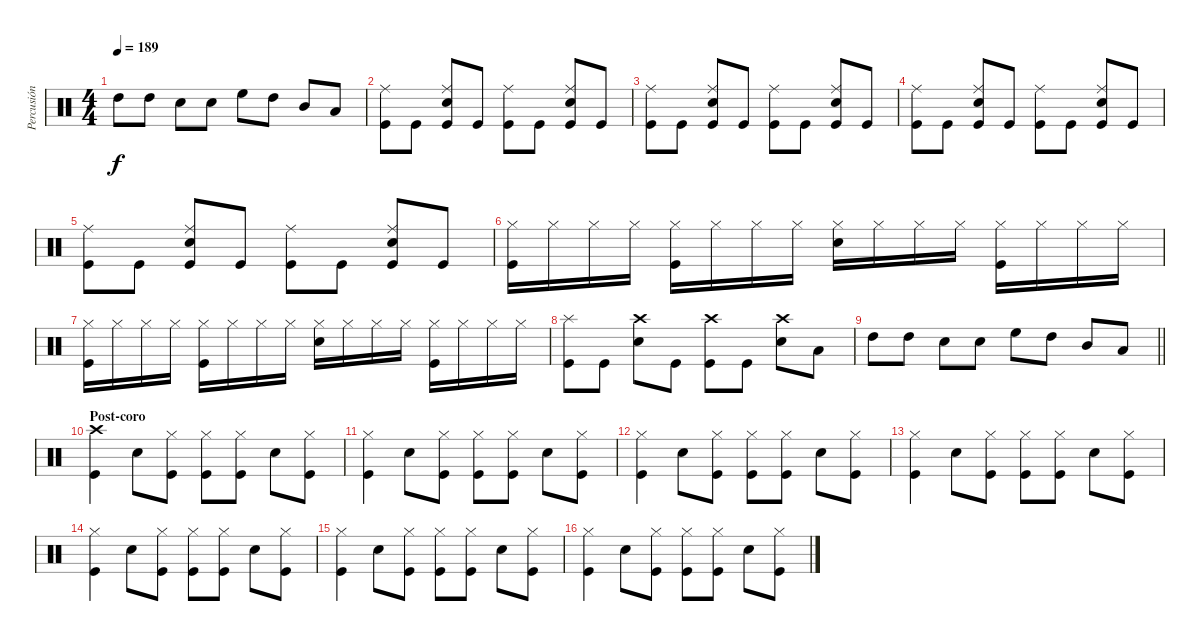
\track ("Percusión" "Percusión") {instrument percussion}
\staff {score}
\articulation defaults
\ts (4 4)
\tempo 189
\clef neutral
\ks c "High Tom (hit)".8{dy f} "High Tom (hit)".8 "Electric Snare (hit)".8 "Electric Snare (hit)".8 "High Floor Tom (hit)".8 "High Tom (hit)".8 "Mid Tom (hit)".8 "Low Tom (hit)".8
|
("Ride (middle)" "Kick (hit)").8 "Kick (hit)".8 ("Ride (middle)" "Electric Snare (hit)" "Kick (hit)").8 "Kick (hit)".8 ("Ride (middle)" "Kick (hit)").8 "Kick (hit)".8 ("Ride (middle)" "Electric Snare (hit)" "Kick (hit)").8 "Kick (hit)".8 |
("Ride (middle)" "Kick (hit)").8 "Kick (hit)".8 ("Ride (middle)" "Electric Snare (hit)" "Kick (hit)").8 "Kick (hit)".8 ("Ride (middle)" "Kick (hit)").8 "Kick (hit)".8 ("Ride (middle)" "Electric Snare (hit)" "Kick (hit)").8 "Kick (hit)".8 |
("Ride (middle)" "Kick (hit)").8 "Kick (hit)".8 ("Ride (middle)" "Electric Snare (hit)" "Kick (hit)").8 "Kick (hit)".8 ("Ride (middle)" "Kick (hit)").8 "Kick (hit)".8 ("Ride (middle)" "Electric Snare (hit)" "Kick (hit)").8 "Kick (hit)".8 |
("Ride (middle)" "Kick (hit)").8 "Kick (hit)".8 ("Ride (middle)" "Electric Snare (hit)" "Kick (hit)").8 "Kick (hit)".8 ("Ride (middle)" "Kick (hit)").8 "Kick (hit)".8 ("Ride (middle)" "Electric Snare (hit)" "Kick (hit)").8 "Kick (hit)".8 |
("Hi-Hat (closed)" "Kick (hit)").16 "Hi-Hat (closed)".16 "Hi-Hat (closed)".16 "Hi-Hat (closed)".16 ("Hi-Hat (closed)" "Kick (hit)").16 "Hi-Hat (closed)".16 "Hi-Hat (closed)".16 "Hi-Hat (closed)".16 ("Hi-Hat (closed)" "Electric Snare (hit)").16 "Hi-Hat (closed)".16 "Hi-Hat (closed)".16 "Hi-Hat (closed)".16 ("Hi-Hat (closed)" "Kick (hit)").16 "Hi-Hat (closed)".16 "Hi-Hat (closed)".16 "Hi-Hat (closed)".16 |
("Hi-Hat (closed)" "Kick (hit)").16 "Hi-Hat (closed)".16 "Hi-Hat (closed)".16 "Hi-Hat (closed)".16 ("Hi-Hat (closed)" "Kick (hit)").16 "Hi-Hat (closed)".16 "Hi-Hat (closed)".16 "Hi-Hat (closed)".16 ("Hi-Hat (closed)" "Electric Snare (hit)").16 "Hi-Hat (closed)".16 "Hi-Hat (closed)".16 "Hi-Hat (closed)".16 ("Hi-Hat (closed)" "Kick (hit)").16 "Hi-Hat (closed)".16 "Hi-Hat (closed)".16 "Hi-Hat (closed)".16 |
("Splash (hit)" "Kick (hit)").8 "Kick (hit)".8 ("Crash high (hit)" "Electric Snare (hit)").8 "Kick (hit)".8 ("Crash high (hit)" "Kick (hit)").8 "Kick (hit)".8 ("Crash high (hit)" "Electric Snare (hit)").8 "Low Floor Tom (hit)".8 |
\barLineRight lightlight "High Tom (hit)".8 "High Tom (hit)".8 "Electric Snare (hit)".8 "Electric Snare (hit)".8 "High Floor Tom (hit)".8 "High Tom (hit)".8 "Mid Tom (hit)".8 "Low Tom (hit)".8
|
\section ("" "Post-coro")
("Crash high (hit)" "Kick (hit)").4 "Electric Snare (hit)".8 ("Hi-Hat (closed)" "Kick (hit)").8 ("Hi-Hat (closed)" "Kick (hit)").8 ("Hi-Hat (closed)" "Kick (hit)").8 "Electric Snare (hit)".8 ("Hi-Hat (closed)" "Kick (hit)").8 |
("Hi-Hat (closed)" "Kick (hit)").4 "Electric Snare (hit)".8 ("Hi-Hat (closed)" "Kick (hit)").8 ("Hi-Hat (closed)" "Kick (hit)").8 ("Hi-Hat (closed)" "Kick (hit)").8 "Electric Snare (hit)".8 ("Hi-Hat (closed)" "Kick (hit)").8 |
("Hi-Hat (closed)" "Kick (hit)").4 "Electric Snare (hit)".8 ("Hi-Hat (closed)" "Kick (hit)").8 ("Hi-Hat (closed)" "Kick (hit)").8 ("Hi-Hat (closed)" "Kick (hit)").8 "Electric Snare (hit)".8 ("Hi-Hat (closed)" "Kick (hit)").8 |
("Hi-Hat (closed)" "Kick (hit)").4 "Electric Snare (hit)".8 ("Hi-Hat (closed)" "Kick (hit)").8 ("Hi-Hat (closed)" "Kick (hit)").8 ("Hi-Hat (closed)" "Kick (hit)").8 "Electric Snare (hit)".8 ("Hi-Hat (closed)" "Kick (hit)").8 |
("Hi-Hat (closed)" "Kick (hit)").4 "Electric Snare (hit)".8 ("Hi-Hat (closed)" "Kick (hit)").8 ("Hi-Hat (closed)" "Kick (hit)").8 ("Hi-Hat (closed)" "Kick (hit)").8 "Electric Snare (hit)".8 ("Hi-Hat (closed)" "Kick (hit)").8 |
("Hi-Hat (closed)" "Kick (hit)").4 "Electric Snare (hit)".8 ("Hi-Hat (closed)" "Kick (hit)").8 ("Hi-Hat (closed)" "Kick (hit)").8 ("Hi-Hat (closed)" "Kick (hit)").8 "Electric Snare (hit)".8 ("Hi-Hat (closed)" "Kick (hit)").8 |
("Hi-Hat (closed)" "Kick (hit)").4 "Electric Snare (hit)".8 ("Hi-Hat (closed)" "Kick (hit)").8 ("Hi-Hat (closed)" "Kick (hit)").8 ("Hi-Hat (closed)" "Kick (hit)").8 "Electric Snare (hit)".8 ("Hi-Hat (closed)" "Kick (hit)").8
